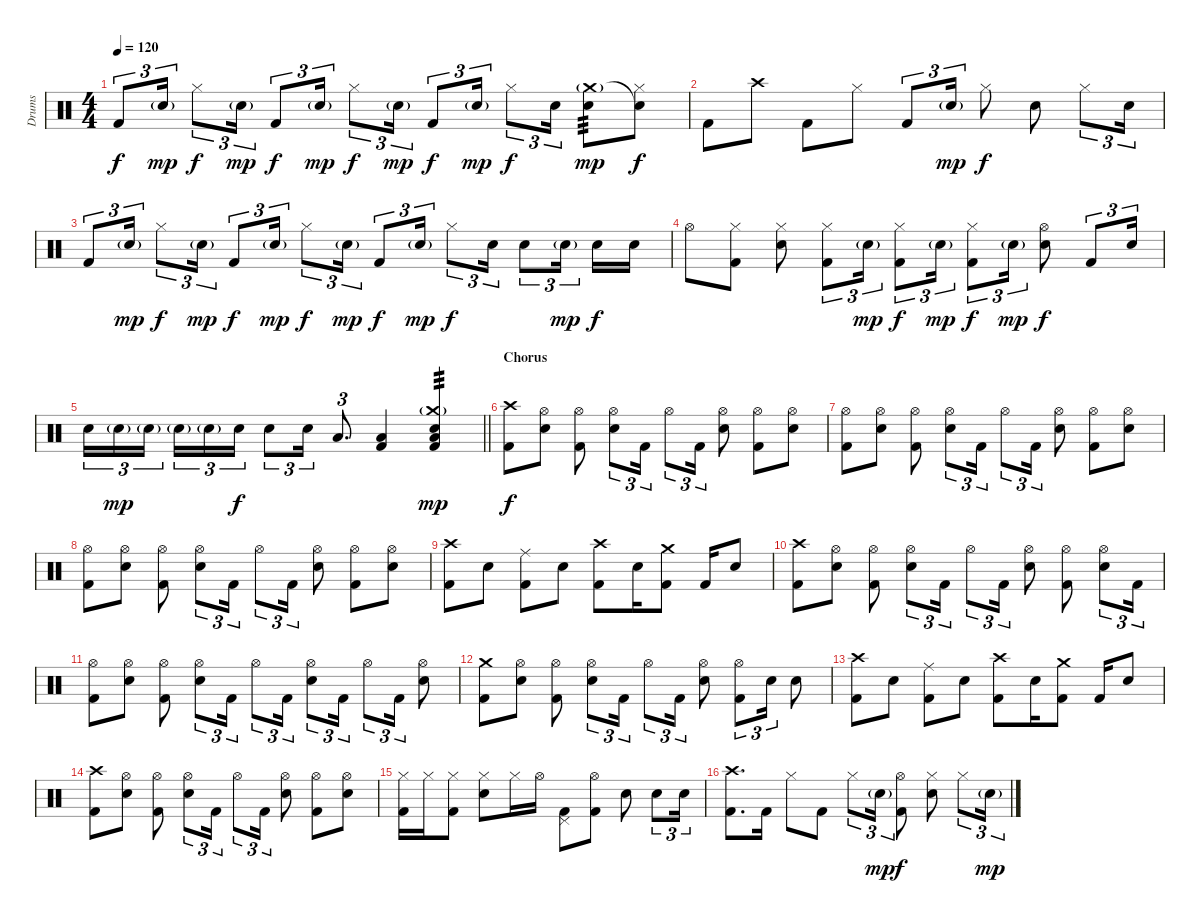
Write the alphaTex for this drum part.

\track ("Drums" "Drums") {instrument percussion}
\staff {score}
\articulation defaults
\ts (4 4)
\tempo 120
\clef neutral
\ks c "Kick (hit) 2".8{tu (3 2) dy f} "Electric Snare (hit)"{g}.16{tu (3 2) dy mp} "Hi-Hat (closed)".8{tu (3 2) dy f} "Electric Snare (hit)"{g}.16{tu (3 2) dy mp} "Kick (hit) 2".8{tu (3 2) dy f} "Electric Snare (hit)"{g}.16{tu (3 2) dy mp} "Hi-Hat (closed)".8{tu (3 2) dy f} "Electric Snare (hit)"{g}.16{tu (3 2) dy mp} "Kick (hit) 2".8{tu (3 2) dy f} "Electric Snare (hit)"{g}.16{tu (3 2) dy mp} "Hi-Hat (closed)".8{tu (3 2) dy f} "Electric Snare (hit)".16{tu (3 2)}
("Crash medium (hit)"{g} "Electric Snare (hit)").8{tp 3 dy mp} ("Snare (hit)"{t} "Hi-Hat (closed)").8{dy f} |
"Kick (hit) 2".8 "Crash high (hit)".8 "Kick (hit) 2".8 "Hi-Hat (closed)".8 "Kick (hit) 2".8{tu (3 2)} "Electric Snare (hit)"{g}.16{tu (3 2) dy mp} "Hi-Hat (closed)".8{dy f} "Electric Snare (hit)".8 "Hi-Hat (closed)".8{tu (3 2)} "Electric Snare (hit)".16{tu (3 2)} |
"Kick (hit) 2".8{tu (3 2)} "Electric Snare (hit)"{g}.16{tu (3 2) dy mp} "Hi-Hat (closed)".8{tu (3 2) dy f} "Electric Snare (hit)"{g}.16{tu (3 2) dy mp} "Kick (hit) 2".8{tu (3 2) dy f} "Electric Snare (hit)"{g}.16{tu (3 2) dy mp} "Hi-Hat (closed)".8{tu (3 2) dy f} "Electric Snare (hit)"{g}.16{tu (3 2) dy mp} "Kick (hit) 2".8{tu (3 2) dy f} "Electric Snare (hit)"{g}.16{tu (3 2) dy mp} "Hi-Hat (closed)".8{tu (3 2) dy f} "Electric Snare (hit)".16{tu (3 2)} "Electric Snare (hit)".8{tu (3 2)} "Electric Snare (hit)"{g}.16{tu (3 2) dy mp beam splitsecondary} "Electric Snare (hit)".16{dy f} "Electric Snare (hit)".16 |
"Hi-Hat (open)".8 ("Hi-Hat (closed)" "Kick (hit) 2").8 ("Hi-Hat (closed)" "Electric Snare (hit)").8 ("Hi-Hat (closed)" "Kick (hit) 2").8{tu (3 2)} "Electric Snare (hit)"{g}.16{tu (3 2) dy mp} ("Hi-Hat (closed)" "Kick (hit) 2").8{tu (3 2) dy f} "Electric Snare (hit)"{g}.16{tu (3 2) dy mp} ("Hi-Hat (closed)" "Kick (hit) 2").8{tu (3 2) dy f} "Electric Snare (hit)"{g}.16{tu (3 2) dy mp} ("Hi-Hat (open)" "Electric Snare (hit)").8{dy f} "Kick (hit) 2".8{tu (3 2)} "Electric Snare (hit)".16{tu (3 2)} |
\barLineRight lightlight "Electric Snare (hit)".16{tu (3 2)} "Electric Snare (hit)"{g}.16{tu (3 2) dy mp} "Electric Snare (hit)"{g}.16{tu (3 2) beam splitsecondary} "Electric Snare (hit)"{g}.16{tu (3 2)} "Electric Snare (hit)"{g}.16{tu (3 2)} "Electric Snare (hit)".16{tu (3 2) dy f} "Electric Snare (hit)".8{tu (3 2)} "Electric Snare (hit)".16{tu (3 2)} "Low Tom (hit)".8{d tu (3 2)}
("Low Floor Tom (hit)" "Kick (hit) 2").4 ("Crash medium (hit)"{g} "Electric Snare (hit)" "Low Floor Tom (hit)" "Kick (hit) 2").4{tp 3 dy mp} |
\section ("" "Chorus")
("Crash high (hit)" "Kick (hit) 2").8{dy f} ("Hi-Hat (open)" "Electric Snare (hit)").8 ("Hi-Hat (open)" "Kick (hit) 2").8 ("Hi-Hat (open)" "Electric Snare (hit)").8{tu (3 2)} "Kick (hit) 2".16{tu (3 2)} "Hi-Hat (open)".8{tu (3 2)} "Kick (hit) 2".16{tu (3 2)} ("Hi-Hat (open)" "Electric Snare (hit)").8 ("Hi-Hat (open)" "Kick (hit) 2").8 ("Hi-Hat (open)" "Electric Snare (hit)").8 |
("Hi-Hat (open)" "Kick (hit) 2").8 ("Hi-Hat (open)" "Electric Snare (hit)").8 ("Hi-Hat (open)" "Kick (hit) 2").8 ("Hi-Hat (open)" "Electric Snare (hit)").8{tu (3 2)} "Kick (hit) 2".16{tu (3 2)} "Hi-Hat (open)".8{tu (3 2)} "Kick (hit) 2".16{tu (3 2)} ("Hi-Hat (open)" "Electric Snare (hit)").8 ("Hi-Hat (open)" "Kick (hit) 2").8 ("Hi-Hat (open)" "Electric Snare (hit)").8 |
("Hi-Hat (open)" "Kick (hit) 2").8 ("Hi-Hat (open)" "Electric Snare (hit)").8 ("Hi-Hat (open)" "Kick (hit) 2").8 ("Hi-Hat (open)" "Electric Snare (hit)").8{tu (3 2)} "Kick (hit) 2".16{tu (3 2)} "Hi-Hat (open)".8{tu (3 2)} "Kick (hit) 2".16{tu (3 2)} ("Hi-Hat (open)" "Electric Snare (hit)").8 ("Hi-Hat (open)" "Kick (hit) 2").8 ("Hi-Hat (open)" "Electric Snare (hit)").8 |
("Crash high (hit)" "Kick (hit) 2").8 "Electric Snare (hit)".8 ("Ride (middle)" "Kick (hit) 2").8 "Electric Snare (hit)".8 ("Crash high (hit)" "Kick (hit) 2").8 "Electric Snare (hit)".16 ("Crash medium (hit)" "Kick (hit) 2").8 "Kick (hit) 2".16 "Electric Snare (hit)".8 |
("Crash high (hit)" "Kick (hit) 2").8 ("Hi-Hat (open)" "Electric Snare (hit)").8 ("Hi-Hat (open)" "Kick (hit) 2").8 ("Hi-Hat (open)" "Electric Snare (hit)").8{tu (3 2)} "Kick (hit) 2".16{tu (3 2)} "Hi-Hat (open)".8{tu (3 2)} "Kick (hit) 2".16{tu (3 2)} ("Hi-Hat (open)" "Electric Snare (hit)").8 ("Hi-Hat (open)" "Kick (hit) 2").8 ("Hi-Hat (open)" "Electric Snare (hit)").8{tu (3 2)} "Kick (hit) 2".16{tu (3 2)} |
("Hi-Hat (open)" "Kick (hit) 2").8 ("Hi-Hat (open)" "Electric Snare (hit)").8 ("Hi-Hat (open)" "Kick (hit) 2").8 ("Hi-Hat (open)" "Electric Snare (hit)").8{tu (3 2)} "Kick (hit) 2".16{tu (3 2)} "Hi-Hat (open)".8{tu (3 2)} "Kick (hit) 2".16{tu (3 2)} ("Hi-Hat (open)" "Electric Snare (hit)").8{tu (3 2)} "Kick (hit) 2".16{tu (3 2)} "Hi-Hat (open)".8{tu (3 2)} "Kick (hit) 2".16{tu (3 2)} ("Hi-Hat (open)" "Electric Snare (hit)").8 |
("Crash medium (hit)" "Kick (hit) 2").8 ("Hi-Hat (open)" "Electric Snare (hit)").8 ("Hi-Hat (open)" "Kick (hit) 2").8 ("Hi-Hat (open)" "Electric Snare (hit)").8{tu (3 2)} "Kick (hit) 2".16{tu (3 2)} "Hi-Hat (open)".8{tu (3 2)} "Kick (hit) 2".16{tu (3 2)} ("Hi-Hat (open)" "Electric Snare (hit)").8 ("Hi-Hat (open)" "Kick (hit) 2").8{tu (3 2)} "Electric Snare (hit)".16{tu (3 2)} "Electric Snare (hit)".8 |
("Crash high (hit)" "Kick (hit) 2").8 "Electric Snare (hit)".8 ("Ride (middle)" "Kick (hit) 2").8 "Electric Snare (hit)".8 ("Crash high (hit)" "Kick (hit) 2").8 "Electric Snare (hit)".16 ("Crash medium (hit)" "Kick (hit) 2").8 "Kick (hit) 2".16 "Electric Snare (hit)".8 |
("Crash high (hit)" "Kick (hit) 2").8 ("Hi-Hat (open)" "Electric Snare (hit)").8 ("Hi-Hat (open)" "Kick (hit) 2").8 ("Hi-Hat (open)" "Electric Snare (hit)").8{tu (3 2)} "Kick (hit) 2".16{tu (3 2)} "Hi-Hat (open)".8{tu (3 2)} "Kick (hit) 2".16{tu (3 2)} ("Hi-Hat (open)" "Electric Snare (hit)").8 ("Hi-Hat (open)" "Kick (hit) 2").8 ("Hi-Hat (open)" "Electric Snare (hit)").8 |
("Hi-Hat (closed)" "Kick (hit) 2").16 "Hi-Hat (closed)".16 ("Hi-Hat (closed)" "Kick (hit) 2").8 ("Hi-Hat (closed)" "Electric Snare (hit)").8 "Hi-Hat (closed)".16 "Hi-Hat (open)".16 ("Pedal Hi-Hat (hit)" "Kick (hit) 2").8 ("Hi-Hat (open)" "Kick (hit) 2").8 "Electric Snare (hit)".8 "Electric Snare (hit)".8{tu (3 2)} "Electric Snare (hit)".16{tu (3 2)} |
("Crash high (hit)" "Kick (hit) 2").8{d} "Kick (hit) 2".16 "Hi-Hat (closed)".8 "Kick (hit) 2".8 "Hi-Hat (closed)".8{tu (3 2)} "Electric Snare (hit)"{g}.16{tu (3 2) dy mp} ("Hi-Hat (open)" "Kick (hit) 2").8{dy f} ("Hi-Hat (closed)" "Electric Snare (hit)").8 "Hi-Hat (closed)".8{tu (3 2)} "Electric Snare (hit)"{g}.16{tu (3 2) dy mp}
